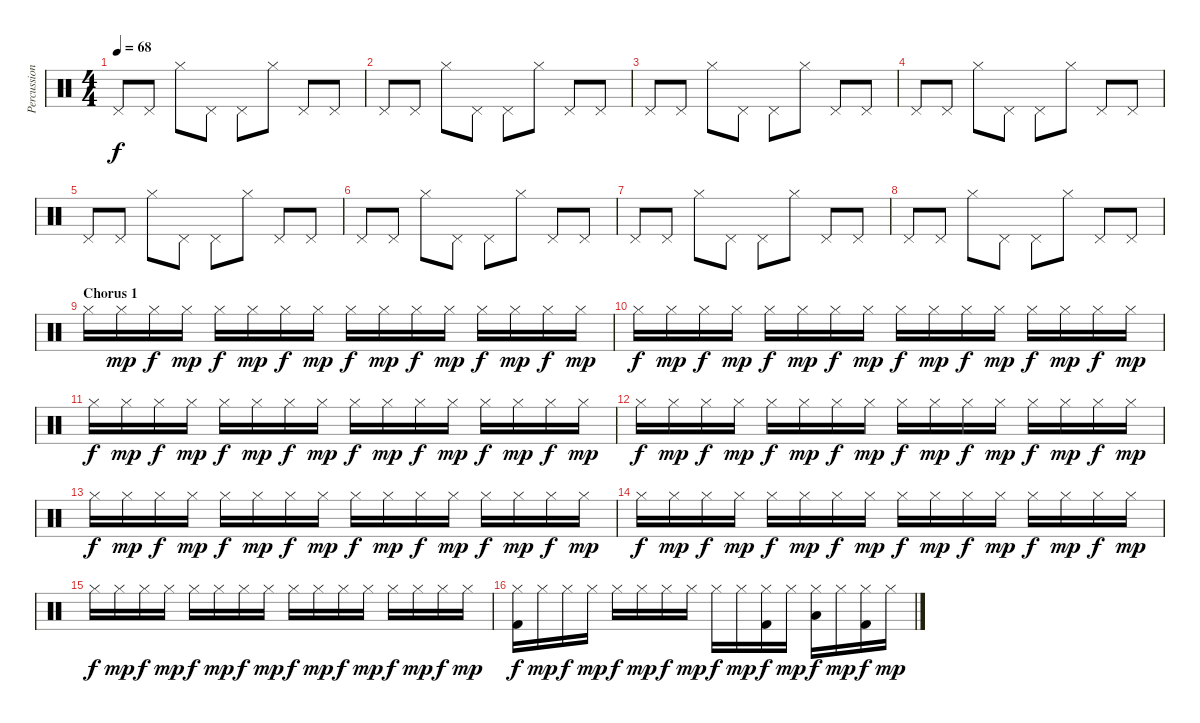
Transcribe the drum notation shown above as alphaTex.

\track ("Percussion" "Percussion") {instrument percussion}
\staff {score}
\articulation defaults
\ts (4 4)
\tempo 68
\clef neutral
\ks c "Pedal Hi-Hat (hit)".8{dy f} "Pedal Hi-Hat (hit)".8 "Hi-Hat (closed)".8 "Pedal Hi-Hat (hit)".8 "Pedal Hi-Hat (hit)".8 "Hi-Hat (closed)".8 "Pedal Hi-Hat (hit)".8 "Pedal Hi-Hat (hit)".8
|
"Pedal Hi-Hat (hit)".8 "Pedal Hi-Hat (hit)".8 "Hi-Hat (closed)".8 "Pedal Hi-Hat (hit)".8 "Pedal Hi-Hat (hit)".8 "Hi-Hat (closed)".8 "Pedal Hi-Hat (hit)".8 "Pedal Hi-Hat (hit)".8 |
"Pedal Hi-Hat (hit)".8 "Pedal Hi-Hat (hit)".8 "Hi-Hat (closed)".8 "Pedal Hi-Hat (hit)".8 "Pedal Hi-Hat (hit)".8 "Hi-Hat (closed)".8 "Pedal Hi-Hat (hit)".8 "Pedal Hi-Hat (hit)".8 |
"Pedal Hi-Hat (hit)".8 "Pedal Hi-Hat (hit)".8 "Hi-Hat (closed)".8 "Pedal Hi-Hat (hit)".8 "Pedal Hi-Hat (hit)".8 "Hi-Hat (closed)".8 "Pedal Hi-Hat (hit)".8 "Pedal Hi-Hat (hit)".8 |
"Pedal Hi-Hat (hit)".8 "Pedal Hi-Hat (hit)".8 "Hi-Hat (closed)".8 "Pedal Hi-Hat (hit)".8 "Pedal Hi-Hat (hit)".8 "Hi-Hat (closed)".8 "Pedal Hi-Hat (hit)".8 "Pedal Hi-Hat (hit)".8 |
"Pedal Hi-Hat (hit)".8 "Pedal Hi-Hat (hit)".8 "Hi-Hat (closed)".8 "Pedal Hi-Hat (hit)".8 "Pedal Hi-Hat (hit)".8 "Hi-Hat (closed)".8 "Pedal Hi-Hat (hit)".8 "Pedal Hi-Hat (hit)".8 |
"Pedal Hi-Hat (hit)".8 "Pedal Hi-Hat (hit)".8 "Hi-Hat (closed)".8 "Pedal Hi-Hat (hit)".8 "Pedal Hi-Hat (hit)".8 "Hi-Hat (closed)".8 "Pedal Hi-Hat (hit)".8 "Pedal Hi-Hat (hit)".8 |
"Pedal Hi-Hat (hit)".8 "Pedal Hi-Hat (hit)".8 "Hi-Hat (closed)".8 "Pedal Hi-Hat (hit)".8 "Pedal Hi-Hat (hit)".8 "Hi-Hat (closed)".8 "Pedal Hi-Hat (hit)".8 "Pedal Hi-Hat (hit)".8 |
\section ("" "Chorus 1")
"Hi-Hat (closed)".16 "Hi-Hat (closed)".16{dy mp} "Hi-Hat (closed)".16{dy f} "Hi-Hat (closed)".16{dy mp} "Hi-Hat (closed)".16{dy f} "Hi-Hat (closed)".16{dy mp} "Hi-Hat (closed)".16{dy f} "Hi-Hat (closed)".16{dy mp} "Hi-Hat (closed)".16{dy f} "Hi-Hat (closed)".16{dy mp} "Hi-Hat (closed)".16{dy f} "Hi-Hat (closed)".16{dy mp} "Hi-Hat (closed)".16{dy f} "Hi-Hat (closed)".16{dy mp} "Hi-Hat (closed)".16{dy f} "Hi-Hat (closed)".16{dy mp} |
"Hi-Hat (closed)".16{dy f} "Hi-Hat (closed)".16{dy mp} "Hi-Hat (closed)".16{dy f} "Hi-Hat (closed)".16{dy mp} "Hi-Hat (closed)".16{dy f} "Hi-Hat (closed)".16{dy mp} "Hi-Hat (closed)".16{dy f} "Hi-Hat (closed)".16{dy mp} "Hi-Hat (closed)".16{dy f} "Hi-Hat (closed)".16{dy mp} "Hi-Hat (closed)".16{dy f} "Hi-Hat (closed)".16{dy mp} "Hi-Hat (closed)".16{dy f} "Hi-Hat (closed)".16{dy mp} "Hi-Hat (closed)".16{dy f} "Hi-Hat (closed)".16{dy mp} |
"Hi-Hat (closed)".16{dy f} "Hi-Hat (closed)".16{dy mp} "Hi-Hat (closed)".16{dy f} "Hi-Hat (closed)".16{dy mp} "Hi-Hat (closed)".16{dy f} "Hi-Hat (closed)".16{dy mp} "Hi-Hat (closed)".16{dy f} "Hi-Hat (closed)".16{dy mp} "Hi-Hat (closed)".16{dy f} "Hi-Hat (closed)".16{dy mp} "Hi-Hat (closed)".16{dy f} "Hi-Hat (closed)".16{dy mp} "Hi-Hat (closed)".16{dy f} "Hi-Hat (closed)".16{dy mp} "Hi-Hat (closed)".16{dy f} "Hi-Hat (closed)".16{dy mp} |
"Hi-Hat (closed)".16{dy f} "Hi-Hat (closed)".16{dy mp} "Hi-Hat (closed)".16{dy f} "Hi-Hat (closed)".16{dy mp} "Hi-Hat (closed)".16{dy f} "Hi-Hat (closed)".16{dy mp} "Hi-Hat (closed)".16{dy f} "Hi-Hat (closed)".16{dy mp} "Hi-Hat (closed)".16{dy f} "Hi-Hat (closed)".16{dy mp} "Hi-Hat (closed)".16{dy f} "Hi-Hat (closed)".16{dy mp} "Hi-Hat (closed)".16{dy f} "Hi-Hat (closed)".16{dy mp} "Hi-Hat (closed)".16{dy f} "Hi-Hat (closed)".16{dy mp} |
"Hi-Hat (closed)".16{dy f} "Hi-Hat (closed)".16{dy mp} "Hi-Hat (closed)".16{dy f} "Hi-Hat (closed)".16{dy mp} "Hi-Hat (closed)".16{dy f} "Hi-Hat (closed)".16{dy mp} "Hi-Hat (closed)".16{dy f} "Hi-Hat (closed)".16{dy mp} "Hi-Hat (closed)".16{dy f} "Hi-Hat (closed)".16{dy mp} "Hi-Hat (closed)".16{dy f} "Hi-Hat (closed)".16{dy mp} "Hi-Hat (closed)".16{dy f} "Hi-Hat (closed)".16{dy mp} "Hi-Hat (closed)".16{dy f} "Hi-Hat (closed)".16{dy mp} |
"Hi-Hat (closed)".16{dy f} "Hi-Hat (closed)".16{dy mp} "Hi-Hat (closed)".16{dy f} "Hi-Hat (closed)".16{dy mp} "Hi-Hat (closed)".16{dy f} "Hi-Hat (closed)".16{dy mp} "Hi-Hat (closed)".16{dy f} "Hi-Hat (closed)".16{dy mp} "Hi-Hat (closed)".16{dy f} "Hi-Hat (closed)".16{dy mp} "Hi-Hat (closed)".16{dy f} "Hi-Hat (closed)".16{dy mp} "Hi-Hat (closed)".16{dy f} "Hi-Hat (closed)".16{dy mp} "Hi-Hat (closed)".16{dy f} "Hi-Hat (closed)".16{dy mp} |
"Hi-Hat (closed)".16{dy f} "Hi-Hat (closed)".16{dy mp} "Hi-Hat (closed)".16{dy f} "Hi-Hat (closed)".16{dy mp} "Hi-Hat (closed)".16{dy f} "Hi-Hat (closed)".16{dy mp} "Hi-Hat (closed)".16{dy f} "Hi-Hat (closed)".16{dy mp} "Hi-Hat (closed)".16{dy f} "Hi-Hat (closed)".16{dy mp} "Hi-Hat (closed)".16{dy f} "Hi-Hat (closed)".16{dy mp} "Hi-Hat (closed)".16{dy f} "Hi-Hat (closed)".16{dy mp} "Hi-Hat (closed)".16{dy f} "Hi-Hat (closed)".16{dy mp} |
("Hi-Hat (closed)" "Kick (hit) 2").16{dy f} "Hi-Hat (closed)".16{dy mp} "Hi-Hat (closed)".16{dy f} "Hi-Hat (closed)".16{dy mp} "Hi-Hat (closed)".16{dy f} "Hi-Hat (closed)".16{dy mp} "Hi-Hat (closed)".16{dy f} "Hi-Hat (closed)".16{dy mp} "Hi-Hat (closed)".16{dy f} "Hi-Hat (closed)".16{dy mp} ("Hi-Hat (closed)" "Kick (hit) 2").16{dy f} "Hi-Hat (closed)".16{dy mp} ("Hi-Hat (closed)" "Low Floor Tom (hit)").16{dy f} "Hi-Hat (closed)".16{dy mp} ("Hi-Hat (closed)" "Kick (hit) 2").16{dy f} "Hi-Hat (closed)".16{dy mp}
